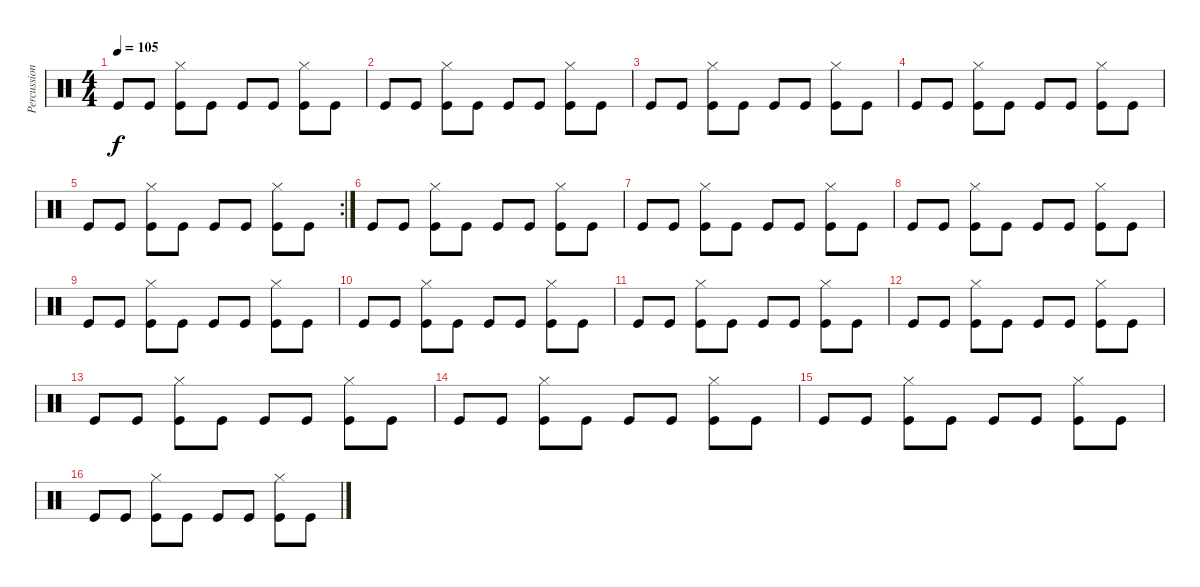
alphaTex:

\track ("Percussion" "Percussion") {instrument percussion}
\staff {score}
\articulation defaults
\ts (4 4)
\tempo 105
\clef neutral
\ks c "Kick (hit)".8{dy f} "Kick (hit)".8
("Hi-Hat (closed)" "Kick (hit)").8 "Kick (hit)".8 "Kick (hit)".8 "Kick (hit)".8 ("Hi-Hat (closed)" "Kick (hit)").8 "Kick (hit)".8 |
"Kick (hit)".8 "Kick (hit)".8 ("Hi-Hat (closed)" "Kick (hit)").8 "Kick (hit)".8 "Kick (hit)".8 "Kick (hit)".8 ("Hi-Hat (closed)" "Kick (hit)").8 "Kick (hit)".8 |
"Kick (hit)".8 "Kick (hit)".8 ("Hi-Hat (closed)" "Kick (hit)").8 "Kick (hit)".8 "Kick (hit)".8 "Kick (hit)".8 ("Hi-Hat (closed)" "Kick (hit)").8 "Kick (hit)".8 |
"Kick (hit)".8 "Kick (hit)".8 ("Hi-Hat (closed)" "Kick (hit)").8 "Kick (hit)".8 "Kick (hit)".8 "Kick (hit)".8 ("Hi-Hat (closed)" "Kick (hit)").8 "Kick (hit)".8 |
\rc 2 "Kick (hit)".8 "Kick (hit)".8
("Hi-Hat (closed)" "Kick (hit)").8 "Kick (hit)".8 "Kick (hit)".8 "Kick (hit)".8 ("Hi-Hat (closed)" "Kick (hit)").8 "Kick (hit)".8 |
"Kick (hit)".8 "Kick (hit)".8 ("Hi-Hat (closed)" "Kick (hit)").8 "Kick (hit)".8 "Kick (hit)".8 "Kick (hit)".8 ("Hi-Hat (closed)" "Kick (hit)").8 "Kick (hit)".8 |
"Kick (hit)".8 "Kick (hit)".8 ("Hi-Hat (closed)" "Kick (hit)").8 "Kick (hit)".8 "Kick (hit)".8 "Kick (hit)".8 ("Hi-Hat (closed)" "Kick (hit)").8 "Kick (hit)".8 |
"Kick (hit)".8 "Kick (hit)".8 ("Hi-Hat (closed)" "Kick (hit)").8 "Kick (hit)".8 "Kick (hit)".8 "Kick (hit)".8 ("Hi-Hat (closed)" "Kick (hit)").8 "Kick (hit)".8 |
"Kick (hit)".8 "Kick (hit)".8 ("Hi-Hat (closed)" "Kick (hit)").8 "Kick (hit)".8 "Kick (hit)".8 "Kick (hit)".8 ("Hi-Hat (closed)" "Kick (hit)").8 "Kick (hit)".8 |
"Kick (hit)".8 "Kick (hit)".8 ("Hi-Hat (closed)" "Kick (hit)").8 "Kick (hit)".8 "Kick (hit)".8 "Kick (hit)".8 ("Hi-Hat (closed)" "Kick (hit)").8 "Kick (hit)".8 |
"Kick (hit)".8 "Kick (hit)".8 ("Hi-Hat (closed)" "Kick (hit)").8 "Kick (hit)".8 "Kick (hit)".8 "Kick (hit)".8 ("Hi-Hat (closed)" "Kick (hit)").8 "Kick (hit)".8 |
"Kick (hit)".8 "Kick (hit)".8 ("Hi-Hat (closed)" "Kick (hit)").8 "Kick (hit)".8 "Kick (hit)".8 "Kick (hit)".8 ("Hi-Hat (closed)" "Kick (hit)").8 "Kick (hit)".8 |
"Kick (hit)".8 "Kick (hit)".8 ("Hi-Hat (closed)" "Kick (hit)").8 "Kick (hit)".8 "Kick (hit)".8 "Kick (hit)".8 ("Hi-Hat (closed)" "Kick (hit)").8 "Kick (hit)".8 |
"Kick (hit)".8 "Kick (hit)".8 ("Hi-Hat (closed)" "Kick (hit)").8 "Kick (hit)".8 "Kick (hit)".8 "Kick (hit)".8 ("Hi-Hat (closed)" "Kick (hit)").8 "Kick (hit)".8 |
"Kick (hit)".8 "Kick (hit)".8 ("Hi-Hat (closed)" "Kick (hit)").8 "Kick (hit)".8 "Kick (hit)".8 "Kick (hit)".8 ("Hi-Hat (closed)" "Kick (hit)").8 "Kick (hit)".8 |
"Kick (hit)".8 "Kick (hit)".8 ("Hi-Hat (closed)" "Kick (hit)").8 "Kick (hit)".8 "Kick (hit)".8 "Kick (hit)".8 ("Hi-Hat (closed)" "Kick (hit)").8 "Kick (hit)".8
